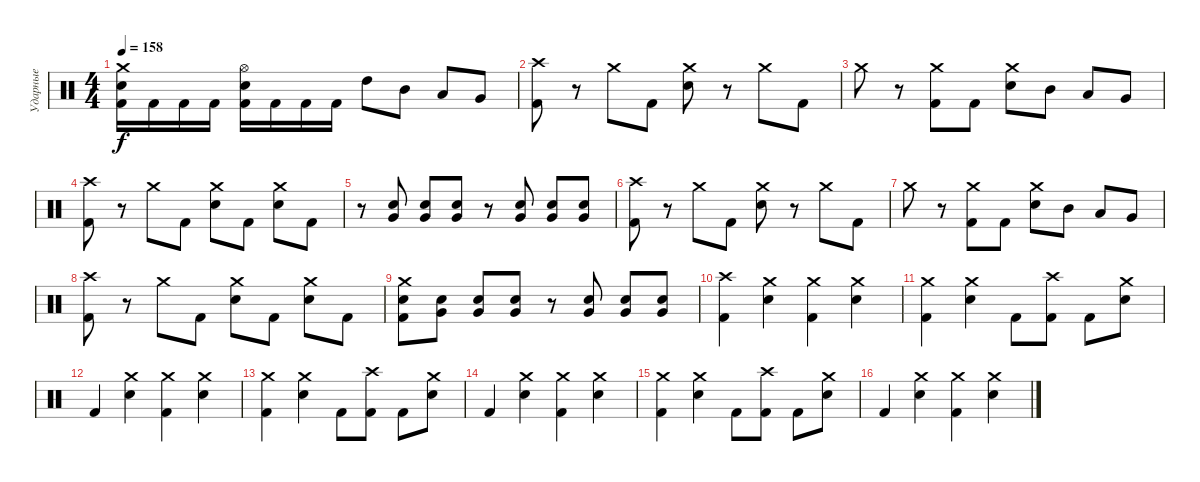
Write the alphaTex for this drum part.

\track ("Ударные" "Ударные") {instrument percussion}
\staff {score}
\articulation defaults
\ts (4 4)
\tempo 158
\clef neutral
\ks c
("Crash medium (hit)" "Snare (hit) 2" "Kick (hit) 2").16{dy f} "Kick (hit) 2".16 "Kick (hit) 2".16 "Kick (hit) 2".16 ("Hi-Hat (open)" "Snare (hit) 2" "Kick (hit) 2").16 "Kick (hit) 2".16 "Kick (hit) 2".16 "Kick (hit) 2".16 "High Tom (hit)".8 "Mid Tom (hit)".8 "Low Tom (hit)".8 "Very Low Tom (hit)".8 |
("Crash high (hit)" "Kick (hit) 2").8 r.8 "Crash medium (hit)".8 "Kick (hit) 2".8 ("Crash medium (hit)" "Snare (hit) 2").8 r.8 "Crash medium (hit)".8 "Kick (hit) 2".8 |
"Crash medium (hit)".8 r.8 ("Crash medium (hit)" "Kick (hit) 2").8 "Kick (hit) 2".8 ("Crash medium (hit)" "Snare (hit) 2").8 "Mid Tom (hit)".8 "Low Tom (hit)".8 "Very Low Tom (hit)".8 |
("Crash high (hit)" "Kick (hit) 2").8 r.8 "Crash medium (hit)".8 "Kick (hit) 2".8 ("Crash medium (hit)" "Snare (hit) 2").8 "Kick (hit) 2".8 ("Crash medium (hit)" "Snare (hit) 2").8 "Kick (hit) 2".8 |
r.8 ("Very Low Tom (hit)" "Snare (hit) 2").8 ("Very Low Tom (hit)" "Snare (hit) 2").8 ("Very Low Tom (hit)" "Snare (hit) 2").8 r.8 ("Very Low Tom (hit)" "Snare (hit) 2").8 ("Very Low Tom (hit)" "Snare (hit) 2").8 ("Very Low Tom (hit)" "Snare (hit) 2").8 |
("Crash high (hit)" "Kick (hit) 2").8 r.8 "Crash medium (hit)".8 "Kick (hit) 2".8 ("Crash medium (hit)" "Snare (hit) 2").8 r.8 "Crash medium (hit)".8 "Kick (hit) 2".8 |
"Crash medium (hit)".8 r.8 ("Crash medium (hit)" "Kick (hit) 2").8 "Kick (hit) 2".8 ("Crash medium (hit)" "Snare (hit) 2").8 "Mid Tom (hit)".8 "Low Tom (hit)".8 "Very Low Tom (hit)".8 |
("Crash high (hit)" "Kick (hit) 2").8 r.8 "Crash medium (hit)".8 "Kick (hit) 2".8 ("Crash medium (hit)" "Snare (hit) 2").8 "Kick (hit) 2".8 ("Crash medium (hit)" "Snare (hit) 2").8 "Kick (hit) 2".8 |
("Crash medium (hit)" "Snare (hit) 2" "Kick (hit) 2").8 ("Very Low Tom (hit)" "Snare (hit) 2").8 ("Very Low Tom (hit)" "Snare (hit) 2").8 ("Very Low Tom (hit)" "Snare (hit) 2").8 r.8 ("Very Low Tom (hit)" "Snare (hit) 2").8 ("Very Low Tom (hit)" "Snare (hit) 2").8 ("Very Low Tom (hit)" "Snare (hit) 2").8 |
("Crash high (hit)" "Kick (hit) 2").4 ("Crash medium (hit)" "Snare (hit) 2").4 ("Crash medium (hit)" "Kick (hit) 2").4 ("Crash medium (hit)" "Snare (hit) 2").4 |
("Crash medium (hit)" "Kick (hit) 2").4 ("Crash medium (hit)" "Snare (hit) 2").4 "Kick (hit) 2".8 ("Crash high (hit)" "Kick (hit) 2").8 "Kick (hit) 2".8 ("Crash medium (hit)" "Snare (hit) 2").8 |
"Kick (hit) 2".4 ("Crash medium (hit)" "Snare (hit) 2").4 ("Crash medium (hit)" "Kick (hit) 2").4 ("Crash medium (hit)" "Snare (hit) 2").4 |
("Crash medium (hit)" "Kick (hit) 2").4 ("Crash medium (hit)" "Snare (hit) 2").4 "Kick (hit) 2".8 ("Crash high (hit)" "Kick (hit) 2").8 "Kick (hit) 2".8 ("Crash medium (hit)" "Snare (hit) 2").8 |
"Kick (hit) 2".4 ("Crash medium (hit)" "Snare (hit) 2").4 ("Crash medium (hit)" "Kick (hit) 2").4 ("Crash medium (hit)" "Snare (hit) 2").4 |
("Crash medium (hit)" "Kick (hit) 2").4 ("Crash medium (hit)" "Snare (hit) 2").4 "Kick (hit) 2".8 ("Crash high (hit)" "Kick (hit) 2").8 "Kick (hit) 2".8 ("Crash medium (hit)" "Snare (hit) 2").8 |
"Kick (hit) 2".4 ("Crash medium (hit)" "Snare (hit) 2").4 ("Crash medium (hit)" "Kick (hit) 2").4 ("Crash medium (hit)" "Snare (hit) 2").4
